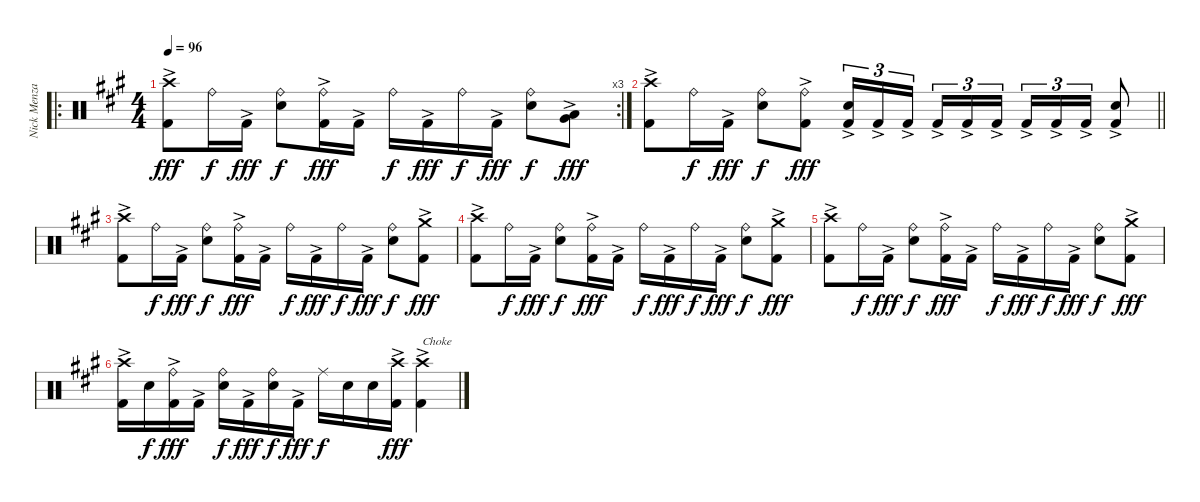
\track ("Nick Menza" "Nick Menza") {instrument percussion}
\staff {score}
\articulation defaults
\ro
\rc 3
\ts (4 4)
\tempo 96
\clef neutral
\ks f#minor
("Crash high (hit)" "Kick (hit) 2"{ac}).8{dy fff} "Ride (bell)".16{dy f} "Kick (hit) 2"{ac}.16{dy fff} ("Ride (bell)" "Snare (hit) 2").8{dy f} ("Ride (bell)" "Kick (hit) 2"{ac}).16{dy fff} "Kick (hit) 2"{ac}.16 "Ride (bell)".16{dy f} "Kick (hit) 2"{ac}.16{dy fff} "Ride (bell)".16{dy f} "Kick (hit) 2"{ac}.16{dy fff} ("Ride (bell)" "Snare (hit) 2").8{dy f} ("Low Tom (hit)"{ac} "Very Low Tom (hit)"{ac}).8{dy fff} |
\barLineRight lightlight
("Crash high (hit)" "Kick (hit) 2"{ac}).8 "Ride (bell)".16{dy f} "Kick (hit) 2"{ac}.16{dy fff} ("Ride (bell)" "Snare (hit) 2").8{dy f} ("Ride (bell)" "Kick (hit) 2"{ac}).8{dy fff} ("Snare (hit) 2"{ac} "Kick (hit) 2"{ac}).16{tu (3 2)} "Kick (hit) 2"{ac}.16{tu (3 2)} "Kick (hit) 2"{ac}.16{tu (3 2) beam splitsecondary} "Kick (hit) 2"{ac}.16{tu (3 2)} "Kick (hit) 2"{ac}.16{tu (3 2)} "Kick (hit) 2"{ac}.16{tu (3 2)} "Kick (hit) 2"{ac}.16{tu (3 2)} "Kick (hit) 2"{ac}.16{tu (3 2)} "Kick (hit) 2"{ac}.16{tu (3 2)} ("Snare (hit) 2"{ac} "Kick (hit) 2"{ac}).8 |
("Crash high (hit)" "Kick (hit) 2"{ac}).8 "Ride (bell)".16{dy f} "Kick (hit) 2"{ac}.16{dy fff} ("Ride (bell)" "Snare (hit) 2").8{dy f} ("Ride (bell)" "Kick (hit) 2"{ac}).16{dy fff} "Kick (hit) 2"{ac}.16 "Ride (bell)".16{dy f} "Kick (hit) 2"{ac}.16{dy fff} "Ride (bell)".16{dy f} "Kick (hit) 2"{ac}.16{dy fff} ("Ride (bell)" "Snare (hit) 2").8{dy f} ("Crash medium (hit)" "Kick (hit) 2"{ac}).8{dy fff} |
("Crash high (hit)" "Kick (hit) 2"{ac}).8 "Ride (bell)".16{dy f} "Kick (hit) 2"{ac}.16{dy fff} ("Ride (bell)" "Snare (hit) 2").8{dy f} ("Ride (bell)" "Kick (hit) 2"{ac}).16{dy fff} "Kick (hit) 2"{ac}.16 "Ride (bell)".16{dy f} "Kick (hit) 2"{ac}.16{dy fff} "Ride (bell)".16{dy f} "Kick (hit) 2"{ac}.16{dy fff} ("Ride (bell)" "Snare (hit) 2").8{dy f} ("Crash medium (hit)" "Kick (hit) 2"{ac}).8{dy fff} |
("Crash high (hit)" "Kick (hit) 2"{ac}).8 "Ride (bell)".16{dy f} "Kick (hit) 2"{ac}.16{dy fff} ("Ride (bell)" "Snare (hit) 2").8{dy f} ("Ride (bell)" "Kick (hit) 2"{ac}).16{dy fff} "Kick (hit) 2"{ac}.16 "Ride (bell)".16{dy f} "Kick (hit) 2"{ac}.16{dy fff} "Ride (bell)".16{dy f} "Kick (hit) 2"{ac}.16{dy fff} ("Ride (bell)" "Snare (hit) 2").8{dy f} ("Crash medium (hit)" "Kick (hit) 2"{ac}).8{dy fff} |
("Crash high (hit)" "Kick (hit) 2"{ac}).16 "Snare (hit) 2".16{dy f} ("Ride (bell)" "Kick (hit) 2"{ac}).16{dy fff} "Kick (hit) 2"{ac}.16 ("Ride (bell)" "Snare (hit) 2").16{dy f} "Kick (hit) 2"{ac}.16{dy fff} ("Ride (bell)" "Snare (hit) 2").16{dy f} "Kick (hit) 2"{ac}.16{dy fff} "Ride (middle)".16{dy f} "Snare (hit) 2".16 "Snare (hit) 2".16 ("Crash high (hit)" "Kick (hit) 2"{ac}).16{dy fff} ("Crash high (hit)" "Kick (hit) 2"{ac}).4{txt "Choke"}
